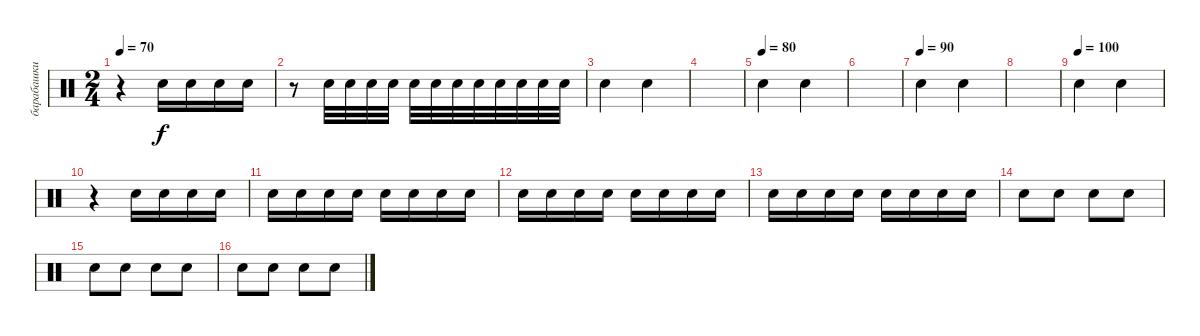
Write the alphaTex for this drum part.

\track ("барабашки middle" "барабашки ") {instrument percussion}
\staff {score}
\articulation defaults
\ts (2 4)
\tempo 70
\clef neutral
\ks c
r.4{dy f} "Electric Snare (hit)".16 "Electric Snare (hit)".16 "Electric Snare (hit)".16 "Electric Snare (hit)".16 |
r.8 "Electric Snare (hit)".32 "Electric Snare (hit)".32 "Electric Snare (hit)".32 "Electric Snare (hit)".32 "Electric Snare (hit)".32 "Electric Snare (hit)".32 "Electric Snare (hit)".32 "Electric Snare (hit)".32 "Electric Snare (hit)".32 "Electric Snare (hit)".32 "Electric Snare (hit)".32 "Electric Snare (hit)".32 |
"Electric Snare (hit)".4 "Snare (hit) 2".4 |
|
\tempo (80)
"Electric Snare (hit)".4 "Snare (hit) 2".4 |
|
\tempo (90)
"Electric Snare (hit)".4 "Snare (hit) 2".4 |
|
\tempo (100)
"Electric Snare (hit)".4 "Snare (hit) 2".4 |
r.4 "Electric Snare (hit)".16 "Electric Snare (hit)".16 "Electric Snare (hit)".16 "Electric Snare (hit)".16 |
"Electric Snare (hit)".16 "Electric Snare (hit)".16 "Electric Snare (hit)".16 "Electric Snare (hit)".16 "Electric Snare (hit)".16 "Electric Snare (hit)".16 "Electric Snare (hit)".16 "Electric Snare (hit)".16 |
"Electric Snare (hit)".16 "Electric Snare (hit)".16 "Electric Snare (hit)".16 "Electric Snare (hit)".16 "Electric Snare (hit)".16 "Electric Snare (hit)".16 "Electric Snare (hit)".16 "Electric Snare (hit)".16 |
"Electric Snare (hit)".16 "Electric Snare (hit)".16 "Electric Snare (hit)".16 "Electric Snare (hit)".16 "Electric Snare (hit)".16 "Electric Snare (hit)".16 "Electric Snare (hit)".16 "Electric Snare (hit)".16 |
"Electric Snare (hit)".8 "Electric Snare (hit)".8 "Electric Snare (hit)".8 "Electric Snare (hit)".8 |
"Electric Snare (hit)".8 "Electric Snare (hit)".8 "Electric Snare (hit)".8 "Electric Snare (hit)".8 |
"Electric Snare (hit)".8 "Electric Snare (hit)".8 "Electric Snare (hit)".8 "Electric Snare (hit)".8
